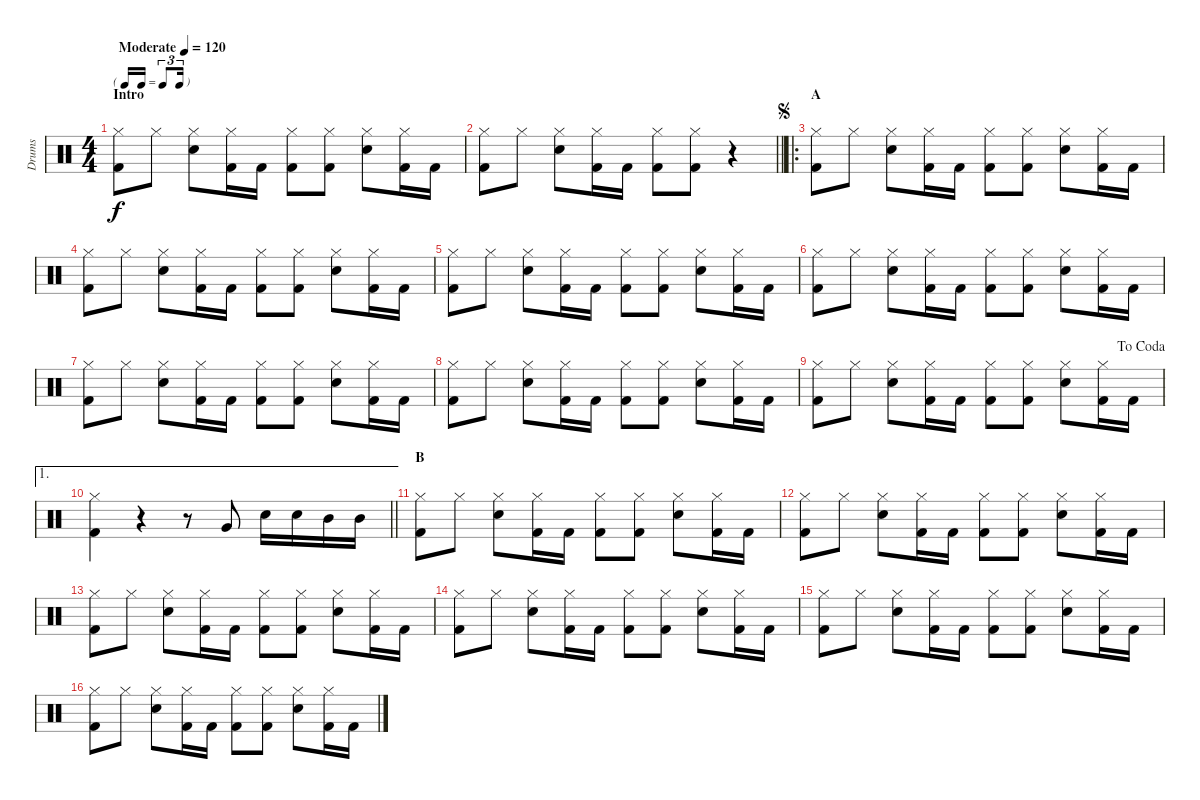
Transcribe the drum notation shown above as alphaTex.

\track ("Drums" "Drums") {instrument percussion}
\staff {score}
\articulation defaults
\ts (4 4)
\tf triplet16th
\section ("" "Intro")
\tempo (120 "Moderate")
\clef neutral
\ks c
("Hi-Hat (closed)" "Kick (hit) 2").8{dy f} "Hi-Hat (closed)".8 ("Hi-Hat (closed)" "Snare (hit) 2").8 ("Hi-Hat (closed)" "Kick (hit) 2").16 "Kick (hit) 2".16 ("Hi-Hat (closed)" "Kick (hit) 2").8 ("Hi-Hat (closed)" "Kick (hit) 2").8 ("Hi-Hat (closed)" "Snare (hit) 2").8 ("Hi-Hat (closed)" "Kick (hit) 2").16 "Kick (hit) 2".16 |
\barLineRight lightlight
("Hi-Hat (closed)" "Kick (hit) 2").8 "Hi-Hat (closed)".8 ("Hi-Hat (closed)" "Snare (hit) 2").8 ("Hi-Hat (closed)" "Kick (hit) 2").16 "Kick (hit) 2".16 ("Hi-Hat (closed)" "Kick (hit) 2").8 ("Hi-Hat (closed)" "Kick (hit) 2").8 r.4 |
\ro
\section ("" "A")
\jump segno
("Hi-Hat (closed)" "Kick (hit) 2").8 "Hi-Hat (closed)".8 ("Hi-Hat (closed)" "Snare (hit) 2").8 ("Hi-Hat (closed)" "Kick (hit) 2").16 "Kick (hit) 2".16 ("Hi-Hat (closed)" "Kick (hit) 2").8 ("Hi-Hat (closed)" "Kick (hit) 2").8 ("Hi-Hat (closed)" "Snare (hit) 2").8 ("Hi-Hat (closed)" "Kick (hit) 2").16 "Kick (hit) 2".16 |
("Hi-Hat (closed)" "Kick (hit) 2").8 "Hi-Hat (closed)".8 ("Hi-Hat (closed)" "Snare (hit) 2").8 ("Hi-Hat (closed)" "Kick (hit) 2").16 "Kick (hit) 2".16 ("Hi-Hat (closed)" "Kick (hit) 2").8 ("Hi-Hat (closed)" "Kick (hit) 2").8 ("Hi-Hat (closed)" "Snare (hit) 2").8 ("Hi-Hat (closed)" "Kick (hit) 2").16 "Kick (hit) 2".16 |
("Hi-Hat (closed)" "Kick (hit) 2").8 "Hi-Hat (closed)".8 ("Hi-Hat (closed)" "Snare (hit) 2").8 ("Hi-Hat (closed)" "Kick (hit) 2").16 "Kick (hit) 2".16 ("Hi-Hat (closed)" "Kick (hit) 2").8 ("Hi-Hat (closed)" "Kick (hit) 2").8 ("Hi-Hat (closed)" "Snare (hit) 2").8 ("Hi-Hat (closed)" "Kick (hit) 2").16 "Kick (hit) 2".16 |
("Hi-Hat (closed)" "Kick (hit) 2").8 "Hi-Hat (closed)".8 ("Hi-Hat (closed)" "Snare (hit) 2").8 ("Hi-Hat (closed)" "Kick (hit) 2").16 "Kick (hit) 2".16 ("Hi-Hat (closed)" "Kick (hit) 2").8 ("Hi-Hat (closed)" "Kick (hit) 2").8 ("Hi-Hat (closed)" "Snare (hit) 2").8 ("Hi-Hat (closed)" "Kick (hit) 2").16 "Kick (hit) 2".16 |
("Hi-Hat (closed)" "Kick (hit) 2").8 "Hi-Hat (closed)".8 ("Hi-Hat (closed)" "Snare (hit) 2").8 ("Hi-Hat (closed)" "Kick (hit) 2").16 "Kick (hit) 2".16 ("Hi-Hat (closed)" "Kick (hit) 2").8 ("Hi-Hat (closed)" "Kick (hit) 2").8 ("Hi-Hat (closed)" "Snare (hit) 2").8 ("Hi-Hat (closed)" "Kick (hit) 2").16 "Kick (hit) 2".16 |
("Hi-Hat (closed)" "Kick (hit) 2").8 "Hi-Hat (closed)".8 ("Hi-Hat (closed)" "Snare (hit) 2").8 ("Hi-Hat (closed)" "Kick (hit) 2").16 "Kick (hit) 2".16 ("Hi-Hat (closed)" "Kick (hit) 2").8 ("Hi-Hat (closed)" "Kick (hit) 2").8 ("Hi-Hat (closed)" "Snare (hit) 2").8 ("Hi-Hat (closed)" "Kick (hit) 2").16 "Kick (hit) 2".16 |
\jump dacoda
("Hi-Hat (closed)" "Kick (hit) 2").8 "Hi-Hat (closed)".8 ("Hi-Hat (closed)" "Snare (hit) 2").8 ("Hi-Hat (closed)" "Kick (hit) 2").16 "Kick (hit) 2".16 ("Hi-Hat (closed)" "Kick (hit) 2").8 ("Hi-Hat (closed)" "Kick (hit) 2").8 ("Hi-Hat (closed)" "Snare (hit) 2").8 ("Hi-Hat (closed)" "Kick (hit) 2").16 "Kick (hit) 2".16 |
\ae 1
\barLineRight lightlight
("Hi-Hat (closed)" "Kick (hit) 2").4 r.4 r.8 "Very Low Tom (hit)".8 "Snare (hit) 2".16 "Snare (hit) 2".16 "Mid Tom (hit)".16 "Mid Tom (hit)".16 |
\section ("" "B")
("Hi-Hat (closed)" "Kick (hit) 2").8 "Hi-Hat (closed)".8 ("Hi-Hat (closed)" "Snare (hit) 2").8 ("Hi-Hat (closed)" "Kick (hit) 2").16 "Kick (hit) 2".16 ("Hi-Hat (closed)" "Kick (hit) 2").8 ("Hi-Hat (closed)" "Kick (hit) 2").8 ("Hi-Hat (closed)" "Snare (hit) 2").8 ("Hi-Hat (closed)" "Kick (hit) 2").16 "Kick (hit) 2".16 |
("Hi-Hat (closed)" "Kick (hit) 2").8 "Hi-Hat (closed)".8 ("Hi-Hat (closed)" "Snare (hit) 2").8 ("Hi-Hat (closed)" "Kick (hit) 2").16 "Kick (hit) 2".16 ("Hi-Hat (closed)" "Kick (hit) 2").8 ("Hi-Hat (closed)" "Kick (hit) 2").8 ("Hi-Hat (closed)" "Snare (hit) 2").8 ("Hi-Hat (closed)" "Kick (hit) 2").16 "Kick (hit) 2".16 |
("Hi-Hat (closed)" "Kick (hit) 2").8 "Hi-Hat (closed)".8 ("Hi-Hat (closed)" "Snare (hit) 2").8 ("Hi-Hat (closed)" "Kick (hit) 2").16 "Kick (hit) 2".16 ("Hi-Hat (closed)" "Kick (hit) 2").8 ("Hi-Hat (closed)" "Kick (hit) 2").8 ("Hi-Hat (closed)" "Snare (hit) 2").8 ("Hi-Hat (closed)" "Kick (hit) 2").16 "Kick (hit) 2".16 |
("Hi-Hat (closed)" "Kick (hit) 2").8 "Hi-Hat (closed)".8 ("Hi-Hat (closed)" "Snare (hit) 2").8 ("Hi-Hat (closed)" "Kick (hit) 2").16 "Kick (hit) 2".16 ("Hi-Hat (closed)" "Kick (hit) 2").8 ("Hi-Hat (closed)" "Kick (hit) 2").8 ("Hi-Hat (closed)" "Snare (hit) 2").8 ("Hi-Hat (closed)" "Kick (hit) 2").16 "Kick (hit) 2".16 |
("Hi-Hat (closed)" "Kick (hit) 2").8 "Hi-Hat (closed)".8 ("Hi-Hat (closed)" "Snare (hit) 2").8 ("Hi-Hat (closed)" "Kick (hit) 2").16 "Kick (hit) 2".16 ("Hi-Hat (closed)" "Kick (hit) 2").8 ("Hi-Hat (closed)" "Kick (hit) 2").8 ("Hi-Hat (closed)" "Snare (hit) 2").8 ("Hi-Hat (closed)" "Kick (hit) 2").16 "Kick (hit) 2".16 |
("Hi-Hat (closed)" "Kick (hit) 2").8 "Hi-Hat (closed)".8 ("Hi-Hat (closed)" "Snare (hit) 2").8 ("Hi-Hat (closed)" "Kick (hit) 2").16 "Kick (hit) 2".16 ("Hi-Hat (closed)" "Kick (hit) 2").8 ("Hi-Hat (closed)" "Kick (hit) 2").8 ("Hi-Hat (closed)" "Snare (hit) 2").8 ("Hi-Hat (closed)" "Kick (hit) 2").16 "Kick (hit) 2".16
